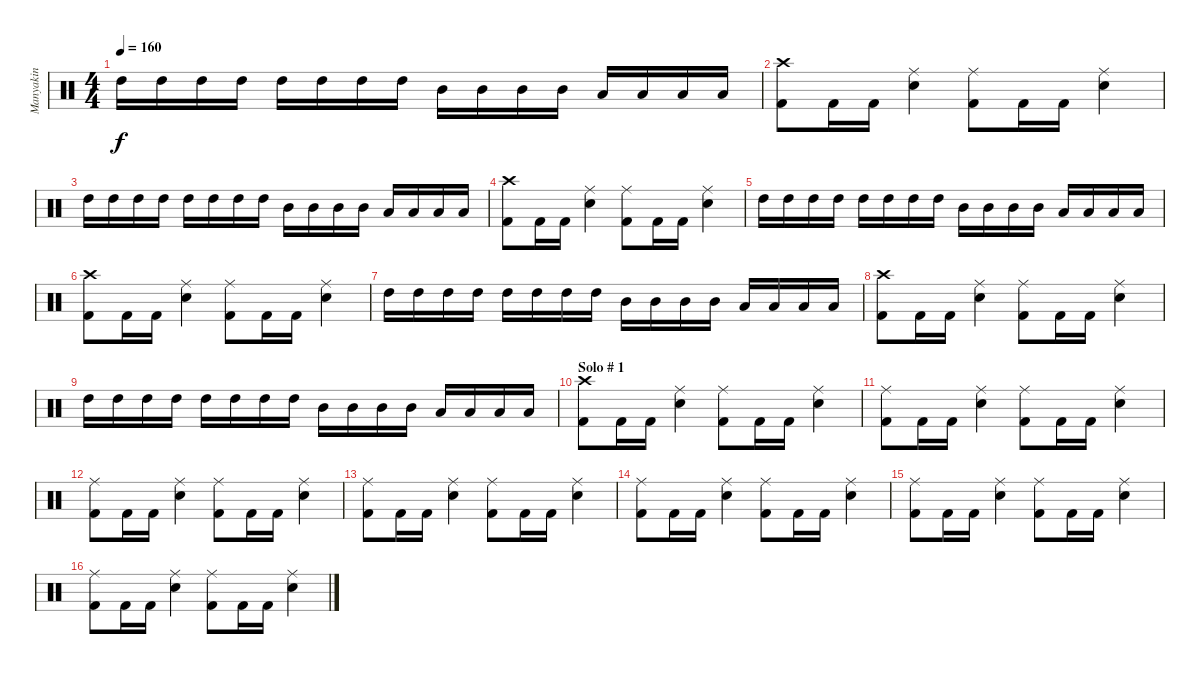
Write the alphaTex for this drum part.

\track ("Manyakin" "Manyakin") {instrument percussion}
\staff {score}
\articulation defaults
\ts (4 4)
\tempo 160
\clef neutral
\ks c "High Tom (hit)".16{dy f} "High Tom (hit)".16 "High Tom (hit)".16 "High Tom (hit)".16 "High Tom (hit)".16 "High Tom (hit)".16 "High Tom (hit)".16 "High Tom (hit)".16 "Mid Tom (hit)".16 "Mid Tom (hit)".16 "Mid Tom (hit)".16 "Mid Tom (hit)".16 "Low Tom (hit)".16 "Low Tom (hit)".16 "Low Tom (hit)".16 "Low Tom (hit)".16
|
("Kick (hit) 2" "Crash high (hit)").8 "Kick (hit) 2".16 "Kick (hit) 2".16 ("Snare (hit) 2" "Ride (middle)").4 ("Kick (hit) 2" "Ride (middle)").8 "Kick (hit) 2".16 "Kick (hit) 2".16 ("Snare (hit) 2" "Ride (middle)").4 |
"High Tom (hit)".16 "High Tom (hit)".16 "High Tom (hit)".16 "High Tom (hit)".16 "High Tom (hit)".16 "High Tom (hit)".16 "High Tom (hit)".16 "High Tom (hit)".16 "Mid Tom (hit)".16 "Mid Tom (hit)".16 "Mid Tom (hit)".16 "Mid Tom (hit)".16 "Low Tom (hit)".16 "Low Tom (hit)".16 "Low Tom (hit)".16 "Low Tom (hit)".16 |
("Kick (hit) 2" "Crash high (hit)").8 "Kick (hit) 2".16 "Kick (hit) 2".16 ("Snare (hit) 2" "Ride (middle)").4 ("Kick (hit) 2" "Ride (middle)").8 "Kick (hit) 2".16 "Kick (hit) 2".16 ("Snare (hit) 2" "Ride (middle)").4 |
"High Tom (hit)".16 "High Tom (hit)".16 "High Tom (hit)".16 "High Tom (hit)".16 "High Tom (hit)".16 "High Tom (hit)".16 "High Tom (hit)".16 "High Tom (hit)".16 "Mid Tom (hit)".16 "Mid Tom (hit)".16 "Mid Tom (hit)".16 "Mid Tom (hit)".16 "Low Tom (hit)".16 "Low Tom (hit)".16 "Low Tom (hit)".16 "Low Tom (hit)".16 |
("Kick (hit) 2" "Crash high (hit)").8 "Kick (hit) 2".16 "Kick (hit) 2".16 ("Snare (hit) 2" "Ride (middle)").4 ("Kick (hit) 2" "Ride (middle)").8 "Kick (hit) 2".16 "Kick (hit) 2".16 ("Snare (hit) 2" "Ride (middle)").4 |
"High Tom (hit)".16 "High Tom (hit)".16 "High Tom (hit)".16 "High Tom (hit)".16 "High Tom (hit)".16 "High Tom (hit)".16 "High Tom (hit)".16 "High Tom (hit)".16 "Mid Tom (hit)".16 "Mid Tom (hit)".16 "Mid Tom (hit)".16 "Mid Tom (hit)".16 "Low Tom (hit)".16 "Low Tom (hit)".16 "Low Tom (hit)".16 "Low Tom (hit)".16 |
("Kick (hit) 2" "Crash high (hit)").8 "Kick (hit) 2".16 "Kick (hit) 2".16 ("Snare (hit) 2" "Ride (middle)").4 ("Kick (hit) 2" "Ride (middle)").8 "Kick (hit) 2".16 "Kick (hit) 2".16 ("Snare (hit) 2" "Ride (middle)").4 |
"High Tom (hit)".16 "High Tom (hit)".16 "High Tom (hit)".16 "High Tom (hit)".16 "High Tom (hit)".16 "High Tom (hit)".16 "High Tom (hit)".16 "High Tom (hit)".16 "Mid Tom (hit)".16 "Mid Tom (hit)".16 "Mid Tom (hit)".16 "Mid Tom (hit)".16 "Low Tom (hit)".16 "Low Tom (hit)".16 "Low Tom (hit)".16 "Low Tom (hit)".16 |
\section ("" "Solo # 1")
("Kick (hit) 2" "Crash high (hit)").8 "Kick (hit) 2".16 "Kick (hit) 2".16 ("Snare (hit) 2" "Ride (middle)").4 ("Kick (hit) 2" "Ride (middle)").8 "Kick (hit) 2".16 "Kick (hit) 2".16 ("Snare (hit) 2" "Ride (middle)").4 |
("Kick (hit) 2" "Ride (middle)").8 "Kick (hit) 2".16 "Kick (hit) 2".16 ("Snare (hit) 2" "Ride (middle)").4 ("Kick (hit) 2" "Ride (middle)").8 "Kick (hit) 2".16 "Kick (hit) 2".16 ("Snare (hit) 2" "Ride (middle)").4 |
("Kick (hit) 2" "Ride (middle)").8 "Kick (hit) 2".16 "Kick (hit) 2".16 ("Snare (hit) 2" "Ride (middle)").4 ("Kick (hit) 2" "Ride (middle)").8 "Kick (hit) 2".16 "Kick (hit) 2".16 ("Snare (hit) 2" "Ride (middle)").4 |
("Kick (hit) 2" "Ride (middle)").8 "Kick (hit) 2".16 "Kick (hit) 2".16 ("Snare (hit) 2" "Ride (middle)").4 ("Kick (hit) 2" "Ride (middle)").8 "Kick (hit) 2".16 "Kick (hit) 2".16 ("Snare (hit) 2" "Ride (middle)").4 |
("Kick (hit) 2" "Ride (middle)").8 "Kick (hit) 2".16 "Kick (hit) 2".16 ("Snare (hit) 2" "Ride (middle)").4 ("Kick (hit) 2" "Ride (middle)").8 "Kick (hit) 2".16 "Kick (hit) 2".16 ("Snare (hit) 2" "Ride (middle)").4 |
("Kick (hit) 2" "Ride (middle)").8 "Kick (hit) 2".16 "Kick (hit) 2".16 ("Snare (hit) 2" "Ride (middle)").4 ("Kick (hit) 2" "Ride (middle)").8 "Kick (hit) 2".16 "Kick (hit) 2".16 ("Snare (hit) 2" "Ride (middle)").4 |
("Kick (hit) 2" "Ride (middle)").8 "Kick (hit) 2".16 "Kick (hit) 2".16 ("Snare (hit) 2" "Ride (middle)").4 ("Kick (hit) 2" "Ride (middle)").8 "Kick (hit) 2".16 "Kick (hit) 2".16 ("Snare (hit) 2" "Ride (middle)").4
